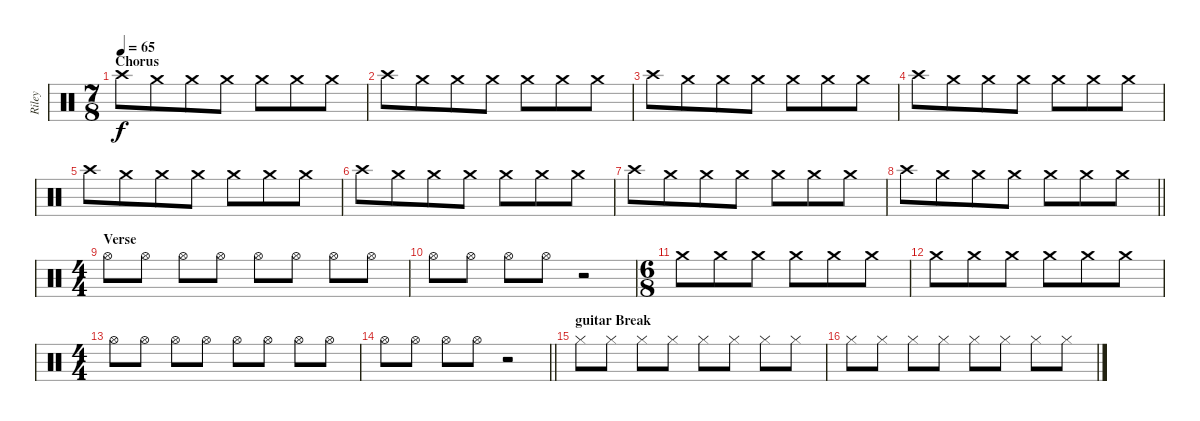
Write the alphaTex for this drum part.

\track ("Riley" "Riley") {instrument percussion}
\staff {score}
\articulation defaults
\ts (7 8)
\section ("" "Chorus")
\tempo 65
\clef neutral
\ks c "Crash high (hit)".8{dy f} "Crash medium (hit)".8 "Crash medium (hit)".8 "Crash medium (hit)".8 "Crash medium (hit)".8 "Crash medium (hit)".8 "Crash medium (hit)".8
|
"Crash high (hit)".8 "Crash medium (hit)".8 "Crash medium (hit)".8 "Crash medium (hit)".8 "Crash medium (hit)".8 "Crash medium (hit)".8 "Crash medium (hit)".8 |
"Crash high (hit)".8 "Crash medium (hit)".8 "Crash medium (hit)".8 "Crash medium (hit)".8 "Crash medium (hit)".8 "Crash medium (hit)".8 "Crash medium (hit)".8 |
"Crash high (hit)".8 "Crash medium (hit)".8 "Crash medium (hit)".8 "Crash medium (hit)".8 "Crash medium (hit)".8 "Crash medium (hit)".8 "Crash medium (hit)".8 |
"Crash high (hit)".8 "Crash medium (hit)".8 "Crash medium (hit)".8 "Crash medium (hit)".8 "Crash medium (hit)".8 "Crash medium (hit)".8 "Crash medium (hit)".8 |
"Crash high (hit)".8 "Crash medium (hit)".8 "Crash medium (hit)".8 "Crash medium (hit)".8 "Crash medium (hit)".8 "Crash medium (hit)".8 "Crash medium (hit)".8 |
"Crash high (hit)".8 "Crash medium (hit)".8 "Crash medium (hit)".8 "Crash medium (hit)".8 "Crash medium (hit)".8 "Crash medium (hit)".8 "Crash medium (hit)".8 |
\barLineRight lightlight "Crash high (hit)".8 "Crash medium (hit)".8 "Crash medium (hit)".8 "Crash medium (hit)".8 "Crash medium (hit)".8 "Crash medium (hit)".8 "Crash medium (hit)".8
|
\ts (4 4)
\section ("" "Verse")
"Hi-Hat (open)".8 "Hi-Hat (open)".8 "Hi-Hat (open)".8 "Hi-Hat (open)".8 "Hi-Hat (open)".8 "Hi-Hat (open)".8 "Hi-Hat (open)".8 "Hi-Hat (open)".8 |
"Hi-Hat (open)".8 "Hi-Hat (open)".8 "Hi-Hat (open)".8 "Hi-Hat (open)".8 r.2 |
\ts (6 8)
"Crash medium (hit)".8 "Crash medium (hit)".8 "Crash medium (hit)".8 "Crash medium (hit)".8 "Crash medium (hit)".8 "Crash medium (hit)".8 |
"Crash medium (hit)".8 "Crash medium (hit)".8 "Crash medium (hit)".8 "Crash medium (hit)".8 "Crash medium (hit)".8 "Crash medium (hit)".8 |
\ts (4 4)
"Hi-Hat (open)".8 "Hi-Hat (open)".8 "Hi-Hat (open)".8 "Hi-Hat (open)".8 "Hi-Hat (open)".8 "Hi-Hat (open)".8 "Hi-Hat (open)".8 "Hi-Hat (open)".8 |
\barLineRight lightlight "Hi-Hat (open)".8 "Hi-Hat (open)".8 "Hi-Hat (open)".8 "Hi-Hat (open)".8
r.2 |
\section ("" "guitar Break")
"Hi-Hat (closed)".8 "Hi-Hat (closed)".8 "Hi-Hat (closed)".8 "Hi-Hat (closed)".8 "Hi-Hat (closed)".8 "Hi-Hat (closed)".8 "Hi-Hat (closed)".8 "Hi-Hat (closed)".8 |
"Hi-Hat (closed)".8 "Hi-Hat (closed)".8 "Hi-Hat (closed)".8 "Hi-Hat (closed)".8 "Hi-Hat (closed)".8 "Hi-Hat (closed)".8 "Hi-Hat (closed)".8 "Hi-Hat (closed)".8
